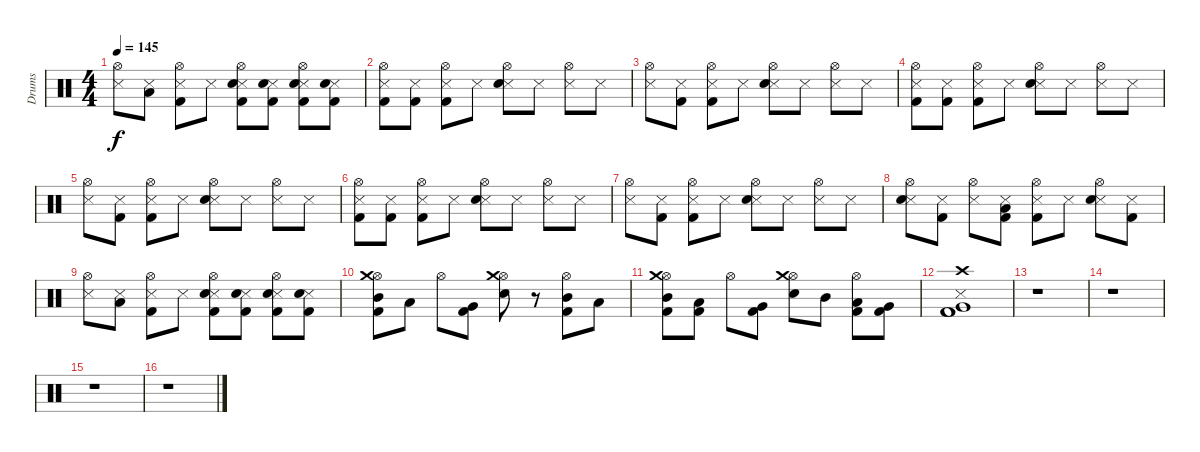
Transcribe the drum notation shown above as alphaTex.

\track ("Drums" "Drums") {instrument percussion}
\staff {score}
\articulation defaults
\ts (4 4)
\tempo 145
\clef neutral
\ks c
("Hi-Hat (open)" "Snare (side stick) 3").8{dy f} ("Snare (side stick) 3" "Low Tom (hit)").8 ("Hi-Hat (open)" "Snare (side stick) 3" "Kick (hit) 2").8 "Snare (side stick) 3".8 ("Hi-Hat (open)" "Snare (side stick) 3" "Electric Snare (hit)" "Kick (hit) 2").8 ("Snare (side stick) 3" "Electric Snare (hit)" "Kick (hit) 2").8 ("Hi-Hat (open)" "Snare (side stick) 3" "Electric Snare (hit)" "Kick (hit) 2").8 ("Snare (side stick) 3" "Electric Snare (hit)" "Kick (hit) 2").8 |
("Hi-Hat (open)" "Snare (side stick) 3" "Kick (hit) 2").8 ("Snare (side stick) 3" "Kick (hit) 2").8 ("Hi-Hat (open)" "Snare (side stick) 3" "Kick (hit) 2").8 "Snare (side stick) 3".8 ("Hi-Hat (open)" "Snare (side stick) 3" "Snare (hit) 2").8 "Snare (side stick) 3".8 ("Hi-Hat (open)" "Snare (side stick) 3").8 "Snare (side stick) 3".8 |
("Hi-Hat (open)" "Snare (side stick) 3").8 ("Snare (side stick) 3" "Kick (hit) 2").8 ("Hi-Hat (open)" "Snare (side stick) 3" "Kick (hit) 2").8 "Snare (side stick) 3".8 ("Hi-Hat (open)" "Snare (side stick) 3" "Snare (hit) 2").8 "Snare (side stick) 3".8 ("Hi-Hat (open)" "Snare (side stick) 3").8 "Snare (side stick) 3".8 |
("Hi-Hat (open)" "Snare (side stick) 3" "Kick (hit) 2").8 ("Snare (side stick) 3" "Kick (hit) 2").8 ("Hi-Hat (open)" "Snare (side stick) 3" "Kick (hit) 2").8 "Snare (side stick) 3".8 ("Hi-Hat (open)" "Snare (side stick) 3" "Snare (hit) 2").8 "Snare (side stick) 3".8 ("Hi-Hat (open)" "Snare (side stick) 3").8 "Snare (side stick) 3".8 |
("Hi-Hat (open)" "Snare (side stick) 3").8 ("Snare (side stick) 3" "Kick (hit) 2").8 ("Hi-Hat (open)" "Snare (side stick) 3" "Kick (hit) 2").8 "Snare (side stick) 3".8 ("Hi-Hat (open)" "Snare (side stick) 3" "Snare (hit) 2").8 "Snare (side stick) 3".8 ("Hi-Hat (open)" "Snare (side stick) 3").8 "Snare (side stick) 3".8 |
("Hi-Hat (open)" "Snare (side stick) 3" "Kick (hit) 2").8 ("Snare (side stick) 3" "Kick (hit) 2").8 ("Hi-Hat (open)" "Snare (side stick) 3" "Kick (hit) 2").8 "Snare (side stick) 3".8 ("Hi-Hat (open)" "Snare (side stick) 3" "Snare (hit) 2").8 "Snare (side stick) 3".8 ("Hi-Hat (open)" "Snare (side stick) 3").8 "Snare (side stick) 3".8 |
("Hi-Hat (open)" "Snare (side stick) 3").8 ("Snare (side stick) 3" "Kick (hit) 2").8 ("Hi-Hat (open)" "Snare (side stick) 3" "Kick (hit) 2").8 "Snare (side stick) 3".8 ("Hi-Hat (open)" "Snare (side stick) 3" "Snare (hit) 2").8 "Snare (side stick) 3".8 ("Hi-Hat (open)" "Snare (side stick) 3").8 "Snare (side stick) 3".8 |
("Hi-Hat (open)" "Snare (side stick) 3" "Electric Snare (hit)").8 ("Snare (side stick) 3" "Kick (hit) 2").8 ("Hi-Hat (open)" "Snare (side stick) 3").8 ("Snare (side stick) 3" "Low Tom (hit)" "Kick (hit) 2").8 ("Hi-Hat (open)" "Snare (side stick) 3" "Kick (hit) 2").8 "Snare (side stick) 3".8 ("Hi-Hat (open)" "Snare (side stick) 3" "Electric Snare (hit)").8 ("Snare (side stick) 3" "Kick (hit) 2").8 |
("Hi-Hat (open)" "Snare (side stick) 3").8 ("Snare (side stick) 3" "Low Tom (hit)").8 ("Hi-Hat (open)" "Snare (side stick) 3" "Kick (hit) 2").8 "Snare (side stick) 3".8 ("Hi-Hat (open)" "Snare (side stick) 3" "Electric Snare (hit)" "Kick (hit) 2").8 ("Snare (side stick) 3" "Electric Snare (hit)" "Kick (hit) 2").8 ("Hi-Hat (open)" "Snare (side stick) 3" "Electric Snare (hit)" "Kick (hit) 2").8 ("Snare (side stick) 3" "Electric Snare (hit)" "Kick (hit) 2").8 |
("Hi-Hat (open)" "Crash medium (hit)" "Mid Tom (hit)" "Kick (hit) 2").8 "Low Tom (hit)".8 "Hi-Hat (open)".8 ("Very Low Tom (hit)" "Kick (hit) 2").8 ("Hi-Hat (open)" "Crash medium (hit)" "Electric Snare (hit)").8 r.8 ("Hi-Hat (open)" "Mid Tom (hit)" "Kick (hit) 2").8 "Low Tom (hit)".8 |
("Hi-Hat (open)" "Crash medium (hit)" "Mid Tom (hit)" "Kick (hit) 2").8 ("Low Tom (hit)" "Kick (hit) 2").8 "Hi-Hat (open)".8 ("Very Low Tom (hit)" "Kick (hit) 2").8 ("Hi-Hat (open)" "Crash medium (hit)" "Electric Snare (hit)").8 "Mid Tom (hit)".8 ("Hi-Hat (open)" "Low Tom (hit)" "Kick (hit) 2").8 ("Very Low Tom (hit)" "Kick (hit) 2").8 |
("Crash high (hit)" "Snare (side stick) 3" "Very Low Tom (hit)" "Kick (hit) 2" "Kick (hit) 2").1 |
r.1 |
r.1 |
r.1 |
r.1
